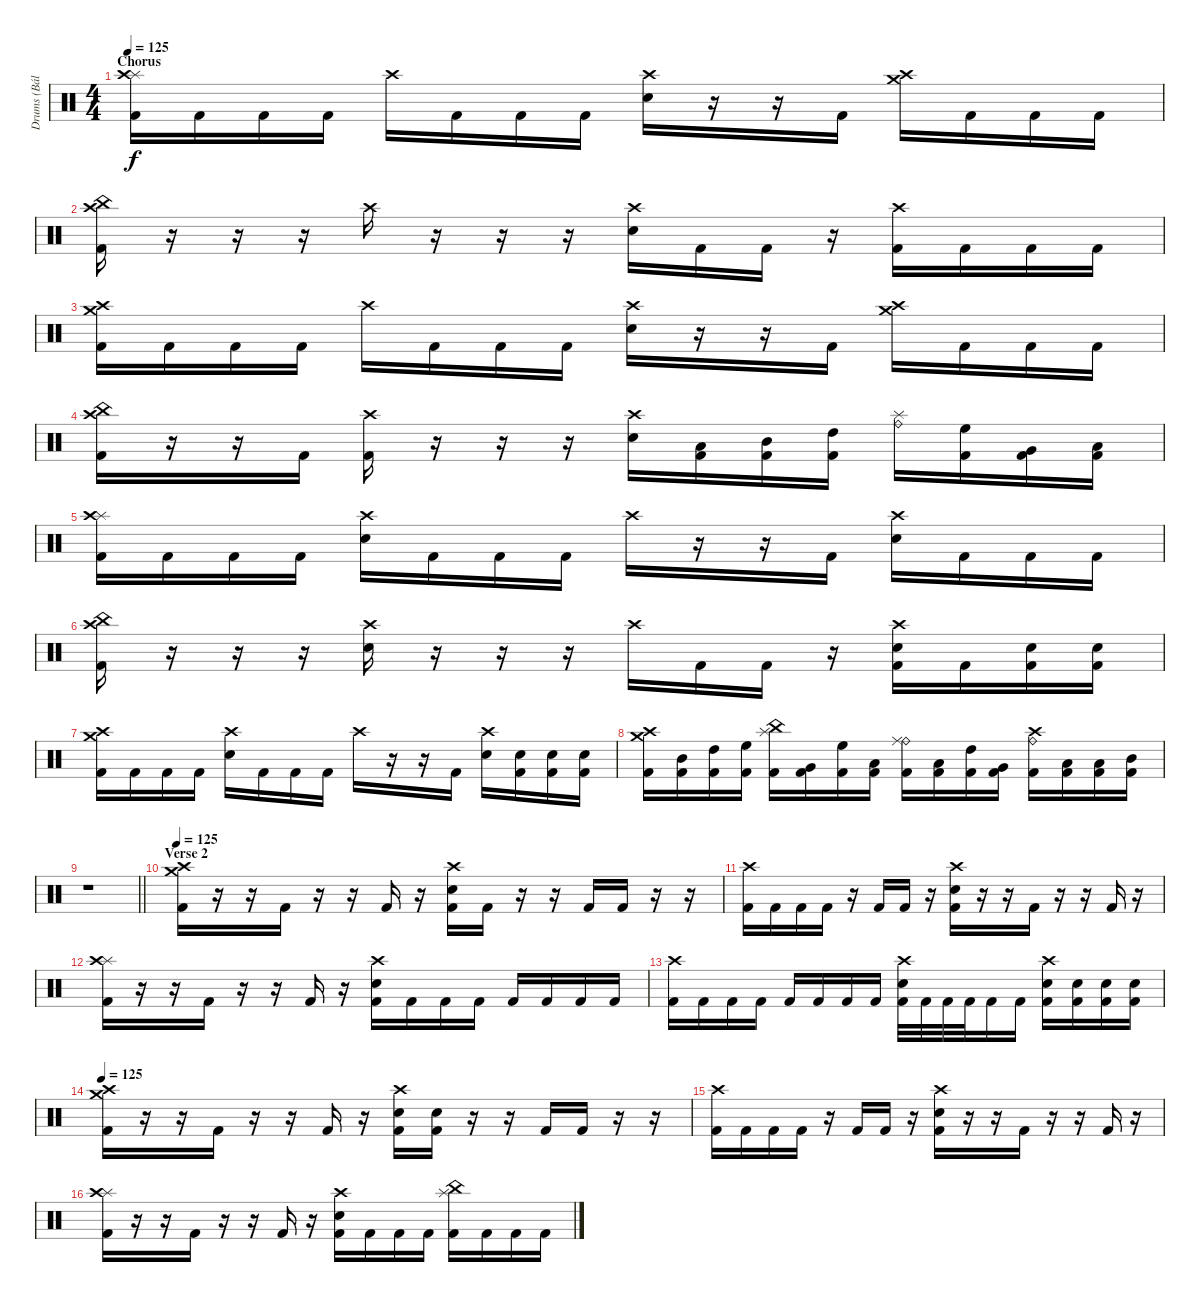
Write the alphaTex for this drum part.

\track ("Drums (Bálint)" "Drums (Bál") {instrument percussion}
\staff {score}
\articulation defaults
\ts (4 4)
\section ("" "Chorus")
\tempo 125
\clef neutral
\ks c
("Splash (hit)" "Crash high (hit)" "Kick (hit) 2").16{dy f} "Kick (hit) 2".16 "Kick (hit) 2".16 "Kick (hit) 2".16 "Crash high (hit)".16 "Kick (hit) 2".16 "Kick (hit) 2".16 "Kick (hit) 2".16 ("Crash high (hit)" "Electric Snare (hit)").16 r.16 r.16 "Kick (hit) 2".16 ("Crash medium (hit)" "Crash high (hit)").16 "Kick (hit) 2".16 "Kick (hit) 2".16 "Kick (hit) 2".16 |
("China (hit)" "Crash high (hit)" "Kick (hit) 2").16 r.16 r.16 r.16 "Crash high (hit)".16 r.16 r.16 r.16 ("Crash high (hit)" "Electric Snare (hit)").16 "Kick (hit) 2".16 "Kick (hit) 2".16 r.16 ("Crash high (hit)" "Kick (hit) 2").16 "Kick (hit) 2".16 "Kick (hit) 2".16 "Kick (hit) 2".16 |
("Crash medium (hit)" "Crash high (hit)" "Kick (hit) 2").16 "Kick (hit) 2".16 "Kick (hit) 2".16 "Kick (hit) 2".16 "Crash high (hit)".16 "Kick (hit) 2".16 "Kick (hit) 2".16 "Kick (hit) 2".16 ("Crash high (hit)" "Electric Snare (hit)").16 r.16 r.16 "Kick (hit) 2".16 ("Crash medium (hit)" "Crash high (hit)").16 "Kick (hit) 2".16 "Kick (hit) 2".16 "Kick (hit) 2".16 |
("China (hit)" "Crash high (hit)" "Kick (hit) 2").16 r.16 r.16 "Kick (hit) 2".16 ("Crash high (hit)" "Kick (hit) 2").16 r.16 r.16 r.16 ("Crash high (hit)" "Electric Snare (hit)").16 ("Low Tom (hit)" "Kick (hit) 2").16 ("Mid Tom (hit)" "Kick (hit) 2").16 ("High Tom (hit)" "Kick (hit) 2").16 ("Ride (bell)" "Splash (hit)").16 ("High Floor Tom (hit)" "Kick (hit) 2").16 ("Very Low Tom (hit)" "Kick (hit) 2").16 ("Low Floor Tom (hit)" "Kick (hit) 2").16 |
("Splash (hit)" "Crash high (hit)" "Kick (hit) 2").16 "Kick (hit) 2".16 "Kick (hit) 2".16 "Kick (hit) 2".16 ("Crash high (hit)" "Electric Snare (hit)").16 "Kick (hit) 2".16 "Kick (hit) 2".16 "Kick (hit) 2".16 "Crash high (hit)".16 r.16 r.16 "Kick (hit) 2".16 ("Crash high (hit)" "Electric Snare (hit)").16 "Kick (hit) 2".16 "Kick (hit) 2".16 "Kick (hit) 2".16 |
("China (hit)" "Crash high (hit)" "Kick (hit) 2").16 r.16 r.16 r.16 ("Crash high (hit)" "Electric Snare (hit)").16 r.16 r.16 r.16 "Crash high (hit)".16 "Kick (hit) 2".16 "Kick (hit) 2".16 r.16 ("Crash high (hit)" "Electric Snare (hit)" "Kick (hit) 2").16 "Kick (hit) 2".16 ("Electric Snare (hit)" "Kick (hit) 2").16 ("Electric Snare (hit)" "Kick (hit) 2").16 |
("Crash medium (hit)" "Crash high (hit)" "Kick (hit) 2").16 "Kick (hit) 2".16 "Kick (hit) 2".16 "Kick (hit) 2".16 ("Crash high (hit)" "Electric Snare (hit)").16 "Kick (hit) 2".16 "Kick (hit) 2".16 "Kick (hit) 2".16 "Crash high (hit)".16 r.16 r.16 "Kick (hit) 2".16 ("Crash high (hit)" "Electric Snare (hit)").16 ("Electric Snare (hit)" "Kick (hit) 2").16 ("Electric Snare (hit)" "Kick (hit) 2").16 ("Electric Snare (hit)" "Kick (hit) 2").16 |
("Crash medium (hit)" "Crash high (hit)" "Kick (hit) 2").16 ("Mid Tom (hit)" "Kick (hit) 2").16 ("High Tom (hit)" "Kick (hit) 2").16 ("High Floor Tom (hit)" "Kick (hit) 2").16 ("China (hit)" "Splash (hit)" "Kick (hit) 2").16 ("Very Low Tom (hit)" "Kick (hit) 2").16 ("High Floor Tom (hit)" "Kick (hit) 2").16 ("Low Tom (hit)" "Kick (hit) 2").16 ("Ride (bell)" "Ride (middle)" "Kick (hit) 2").16 ("Low Tom (hit)" "Kick (hit) 2").16 ("High Tom (hit)" "Kick (hit) 2").16 ("Very Low Tom (hit)" "Kick (hit) 2").16 ("Crash high (hit)" "Ride (bell)" "Kick (hit) 2").16 ("Low Floor Tom (hit)" "Kick (hit) 2").16 ("Low Tom (hit)" "Kick (hit) 2").16 ("Mid Tom (hit)" "Kick (hit) 2").16 |
\barLineRight lightlight
r.1 |
\section ("" "Verse 2")
\tempo 125
("Crash medium (hit)" "Crash high (hit)" "Kick (hit) 2").16 r.16 r.16 "Kick (hit) 2".16 r.16 r.16 "Kick (hit) 2".16 r.16 ("Crash high (hit)" "Electric Snare (hit)" "Kick (hit) 2").16 "Kick (hit) 2".16 r.16 r.16 "Kick (hit) 2".16 "Kick (hit) 2".16 r.16 r.16 |
("Crash high (hit)" "Kick (hit) 2").16 "Kick (hit) 2".16 "Kick (hit) 2".16 "Kick (hit) 2".16 r.16 "Kick (hit) 2".16 "Kick (hit) 2".16 r.16 ("Crash high (hit)" "Electric Snare (hit)" "Kick (hit) 2").16 r.16 r.16 "Kick (hit) 2".16 r.16 r.16 "Kick (hit) 2".16 r.16 |
("Splash (hit)" "Crash high (hit)" "Kick (hit) 2").16 r.16 r.16 "Kick (hit) 2".16 r.16 r.16 "Kick (hit) 2".16 r.16 ("Crash high (hit)" "Electric Snare (hit)" "Kick (hit) 2").16 "Kick (hit) 2".16 "Kick (hit) 2".16 "Kick (hit) 2".16 "Kick (hit) 2".16 "Kick (hit) 2".16 "Kick (hit) 2".16 "Kick (hit) 2".16 |
("Crash high (hit)" "Kick (hit) 2").16 "Kick (hit) 2".16 "Kick (hit) 2".16 "Kick (hit) 2".16 "Kick (hit) 2".16 "Kick (hit) 2".16 "Kick (hit) 2".16 "Kick (hit) 2".16 ("Crash high (hit)" "Electric Snare (hit)" "Kick (hit) 2").32 "Kick (hit) 2".32 "Kick (hit) 2".32 "Kick (hit) 2".32 "Kick (hit) 2".16 "Kick (hit) 2".16 ("Crash high (hit)" "Electric Snare (hit)" "Kick (hit) 2").16 ("Electric Snare (hit)" "Kick (hit) 2").16 ("Electric Snare (hit)" "Kick (hit) 2").16 ("Electric Snare (hit)" "Kick (hit) 2").16 |
\tempo 125
("Crash medium (hit)" "Crash high (hit)" "Kick (hit) 2").16 r.16 r.16 "Kick (hit) 2".16 r.16 r.16 "Kick (hit) 2".16 r.16 ("Crash high (hit)" "Electric Snare (hit)" "Kick (hit) 2").16 ("Electric Snare (hit)" "Kick (hit) 2").16 r.16 r.16 "Kick (hit) 2".16 "Kick (hit) 2".16 r.16 r.16 |
("Crash high (hit)" "Kick (hit) 2").16 "Kick (hit) 2".16 "Kick (hit) 2".16 "Kick (hit) 2".16 r.16 "Kick (hit) 2".16 "Kick (hit) 2".16 r.16 ("Crash high (hit)" "Electric Snare (hit)" "Kick (hit) 2").16 r.16 r.16 "Kick (hit) 2".16 r.16 r.16 "Kick (hit) 2".16 r.16 |
("Splash (hit)" "Crash high (hit)" "Kick (hit) 2").16 r.16 r.16 "Kick (hit) 2".16 r.16 r.16 "Kick (hit) 2".16 r.16 ("Crash high (hit)" "Electric Snare (hit)" "Kick (hit) 2").16 "Kick (hit) 2".16 "Kick (hit) 2".16 "Kick (hit) 2".16 ("Splash (hit)" "China (hit)" "Kick (hit) 2").16 "Kick (hit) 2".16 "Kick (hit) 2".16 "Kick (hit) 2".16
